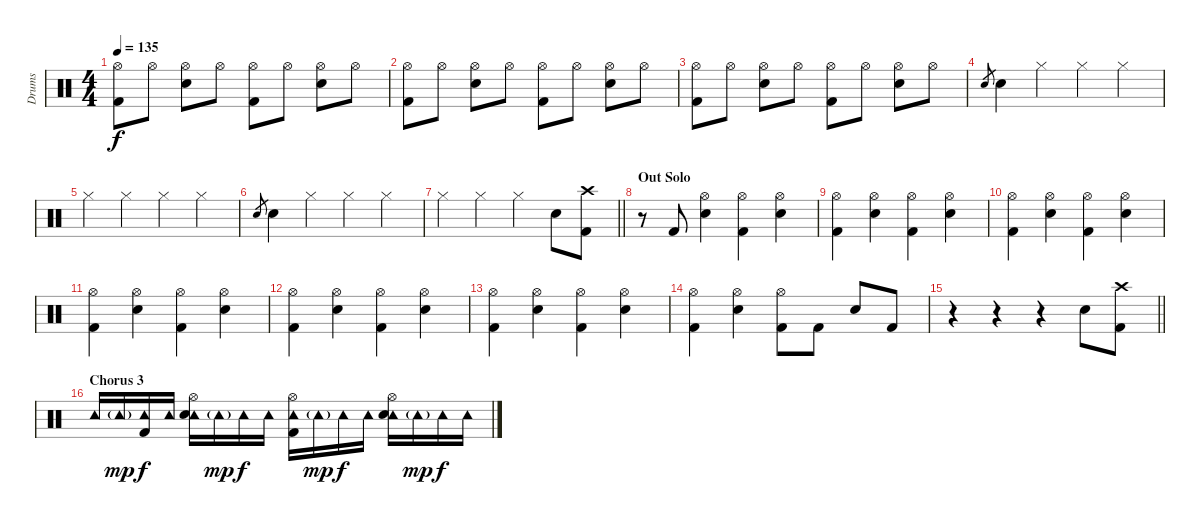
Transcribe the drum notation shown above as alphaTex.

\track ("Drums" "Drums") {instrument percussion}
\staff {score}
\articulation defaults
\ts (4 4)
\tempo 135
\clef neutral
\ks c
("Hi-Hat (open)" "Kick (hit) 2").8{dy f} "Hi-Hat (open)".8 ("Hi-Hat (open)" "Electric Snare (hit)").8 "Hi-Hat (open)".8 ("Hi-Hat (open)" "Kick (hit) 2").8 "Hi-Hat (open)".8 ("Hi-Hat (open)" "Electric Snare (hit)").8 "Hi-Hat (open)".8 |
("Hi-Hat (open)" "Kick (hit) 2").8 "Hi-Hat (open)".8 ("Hi-Hat (open)" "Electric Snare (hit)").8 "Hi-Hat (open)".8 ("Hi-Hat (open)" "Kick (hit) 2").8 "Hi-Hat (open)".8 ("Hi-Hat (open)" "Electric Snare (hit)").8 "Hi-Hat (open)".8 |
("Hi-Hat (open)" "Kick (hit) 2").8 "Hi-Hat (open)".8 ("Hi-Hat (open)" "Electric Snare (hit)").8 "Hi-Hat (open)".8 ("Hi-Hat (open)" "Kick (hit) 2").8 "Hi-Hat (open)".8 ("Hi-Hat (open)" "Electric Snare (hit)").8 "Hi-Hat (open)".8 |
"Electric Snare (hit)".8{gr} "Electric Snare (hit)".4 "Hi-Hat (closed)".4 "Hi-Hat (closed)".4 "Hi-Hat (closed)".4 |
"Hi-Hat (closed)".4 "Hi-Hat (closed)".4 "Hi-Hat (closed)".4 "Hi-Hat (closed)".4 |
"Electric Snare (hit)".8{gr} "Electric Snare (hit)".4 "Hi-Hat (closed)".4 "Hi-Hat (closed)".4 "Hi-Hat (closed)".4 |
\barLineRight lightlight "Hi-Hat (closed)".4 "Hi-Hat (closed)".4 "Hi-Hat (closed)".4 "Electric Snare (hit)".8
("Crash high (hit)" "Kick (hit) 2").8 |
\section ("" "Out Solo")
r.8 "Kick (hit) 2".8 ("Hi-Hat (open)" "Electric Snare (hit)").4 ("Hi-Hat (open)" "Kick (hit) 2").4 ("Hi-Hat (open)" "Electric Snare (hit)").4 |
("Hi-Hat (open)" "Kick (hit) 2").4 ("Hi-Hat (open)" "Electric Snare (hit)").4 ("Hi-Hat (open)" "Kick (hit) 2").4 ("Hi-Hat (open)" "Electric Snare (hit)").4 |
("Hi-Hat (open)" "Kick (hit) 2").4 ("Hi-Hat (open)" "Electric Snare (hit)").4 ("Hi-Hat (open)" "Kick (hit) 2").4 ("Hi-Hat (open)" "Electric Snare (hit)").4 |
("Hi-Hat (open)" "Kick (hit) 2").4 ("Hi-Hat (open)" "Electric Snare (hit)").4 ("Hi-Hat (open)" "Kick (hit) 2").4 ("Hi-Hat (open)" "Electric Snare (hit)").4 |
("Hi-Hat (open)" "Kick (hit) 2").4 ("Hi-Hat (open)" "Electric Snare (hit)").4 ("Hi-Hat (open)" "Kick (hit) 2").4 ("Hi-Hat (open)" "Electric Snare (hit)").4 |
("Hi-Hat (open)" "Kick (hit) 2").4 ("Hi-Hat (open)" "Electric Snare (hit)").4 ("Hi-Hat (open)" "Kick (hit) 2").4 ("Hi-Hat (open)" "Electric Snare (hit)").4 |
("Hi-Hat (open)" "Kick (hit) 2").4 ("Hi-Hat (open)" "Electric Snare (hit)").4 ("Hi-Hat (open)" "Kick (hit) 2").8 "Kick (hit) 2".8 "Electric Snare (hit)".8 "Kick (hit) 2".8 |
\barLineRight lightlight
r.4 r.4 r.4 "Electric Snare (hit)".8 ("Crash high (hit)" "Kick (hit) 2").8 |
\section ("" "Chorus 3")
"Tambourine (hit)".16 "Tambourine (hit)"{g}.16{dy mp} ("Tambourine (hit)" "Kick (hit) 2").16{dy f} "Tambourine (hit)".16 ("Hi-Hat (open)" "Tambourine (hit)" "Electric Snare (hit)").16 "Tambourine (hit)"{g}.16{dy mp} "Tambourine (hit)".16{dy f} "Tambourine (hit)".16 ("Hi-Hat (open)" "Tambourine (hit)" "Kick (hit) 2").16 "Tambourine (hit)"{g}.16{dy mp} "Tambourine (hit)".16{dy f} "Tambourine (hit)".16 ("Hi-Hat (open)" "Tambourine (hit)" "Electric Snare (hit)").16 "Tambourine (hit)"{g}.16{dy mp} "Tambourine (hit)".16{dy f} "Tambourine (hit)".16
